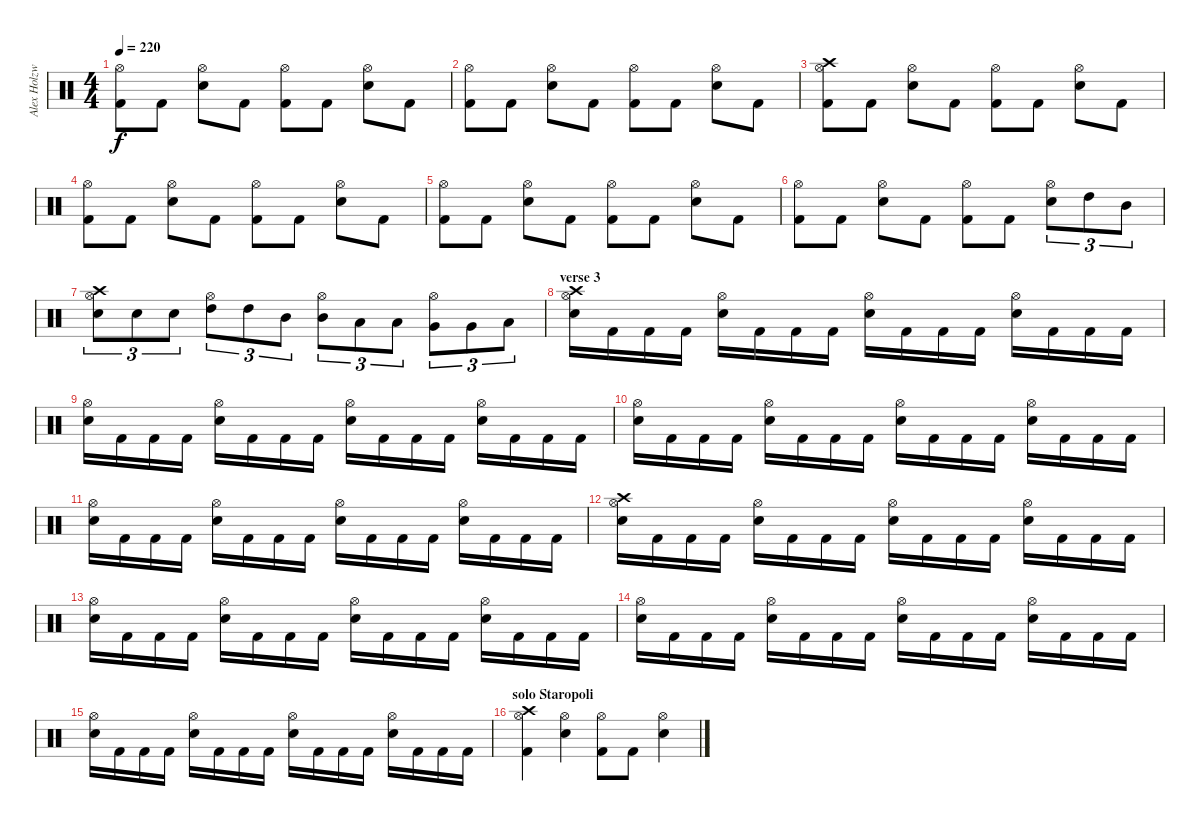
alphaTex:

\track ("Alex Holzwarth" "Alex Holzw") {instrument percussion}
\staff {score}
\articulation defaults
\ts (4 4)
\tempo 220
\clef neutral
\ks c
("Hi-Hat (open)" "Kick (hit) 2").8{dy f} "Kick (hit) 2".8 ("Hi-Hat (open)" "Electric Snare (hit)").8 "Kick (hit) 2".8 ("Hi-Hat (open)" "Kick (hit) 2").8 "Kick (hit) 2".8 ("Hi-Hat (open)" "Electric Snare (hit)").8 "Kick (hit) 2".8 |
("Hi-Hat (open)" "Kick (hit) 2").8 "Kick (hit) 2".8 ("Hi-Hat (open)" "Electric Snare (hit)").8 "Kick (hit) 2".8 ("Hi-Hat (open)" "Kick (hit) 2").8 "Kick (hit) 2".8 ("Hi-Hat (open)" "Electric Snare (hit)").8 "Kick (hit) 2".8 |
("Crash high (hit)" "Hi-Hat (open)" "Kick (hit) 2").8 "Kick (hit) 2".8 ("Hi-Hat (open)" "Electric Snare (hit)").8 "Kick (hit) 2".8 ("Hi-Hat (open)" "Kick (hit) 2").8 "Kick (hit) 2".8 ("Hi-Hat (open)" "Electric Snare (hit)").8 "Kick (hit) 2".8 |
("Hi-Hat (open)" "Kick (hit) 2").8 "Kick (hit) 2".8 ("Hi-Hat (open)" "Electric Snare (hit)").8 "Kick (hit) 2".8 ("Hi-Hat (open)" "Kick (hit) 2").8 "Kick (hit) 2".8 ("Hi-Hat (open)" "Electric Snare (hit)").8 "Kick (hit) 2".8 |
("Hi-Hat (open)" "Kick (hit) 2").8 "Kick (hit) 2".8 ("Hi-Hat (open)" "Electric Snare (hit)").8 "Kick (hit) 2".8 ("Hi-Hat (open)" "Kick (hit) 2").8 "Kick (hit) 2".8 ("Hi-Hat (open)" "Electric Snare (hit)").8 "Kick (hit) 2".8 |
("Hi-Hat (open)" "Kick (hit) 2").8 "Kick (hit) 2".8 ("Hi-Hat (open)" "Electric Snare (hit)").8 "Kick (hit) 2".8 ("Hi-Hat (open)" "Kick (hit) 2").8 "Kick (hit) 2".8 ("Hi-Hat (open)" "Electric Snare (hit)").8{tu (3 2)} "High Tom (hit)".8{tu (3 2)} "Mid Tom (hit)".8{tu (3 2)} |
("Crash high (hit)" "Hi-Hat (open)" "Electric Snare (hit)").8{tu (3 2)} "Electric Snare (hit)".8{tu (3 2)} "Electric Snare (hit)".8{tu (3 2)} ("Hi-Hat (open)" "High Tom (hit)").8{tu (3 2)} "High Tom (hit)".8{tu (3 2)} "Mid Tom (hit)".8{tu (3 2)} ("Hi-Hat (open)" "Mid Tom (hit)").8{tu (3 2)} "Low Tom (hit)".8{tu (3 2)} "Low Tom (hit)".8{tu (3 2)} ("Hi-Hat (open)" "Very Low Tom (hit)").8{tu (3 2)} "Very Low Tom (hit)".8{tu (3 2)} "Low Floor Tom (hit)".8{tu (3 2)} |
\section ("" "verse 3")
("Crash high (hit)" "Hi-Hat (open)" "Electric Snare (hit)").16 "Kick (hit) 2".16 "Kick (hit) 2".16 "Kick (hit) 2".16 ("Hi-Hat (open)" "Electric Snare (hit)").16 "Kick (hit) 2".16 "Kick (hit) 2".16 "Kick (hit) 2".16 ("Hi-Hat (open)" "Electric Snare (hit)").16 "Kick (hit) 2".16 "Kick (hit) 2".16 "Kick (hit) 2".16 ("Hi-Hat (open)" "Electric Snare (hit)").16 "Kick (hit) 2".16 "Kick (hit) 2".16 "Kick (hit) 2".16 |
("Hi-Hat (open)" "Electric Snare (hit)").16 "Kick (hit) 2".16 "Kick (hit) 2".16 "Kick (hit) 2".16 ("Hi-Hat (open)" "Electric Snare (hit)").16 "Kick (hit) 2".16 "Kick (hit) 2".16 "Kick (hit) 2".16 ("Hi-Hat (open)" "Electric Snare (hit)").16 "Kick (hit) 2".16 "Kick (hit) 2".16 "Kick (hit) 2".16 ("Hi-Hat (open)" "Electric Snare (hit)").16 "Kick (hit) 2".16 "Kick (hit) 2".16 "Kick (hit) 2".16 |
("Hi-Hat (open)" "Electric Snare (hit)").16 "Kick (hit) 2".16 "Kick (hit) 2".16 "Kick (hit) 2".16 ("Hi-Hat (open)" "Electric Snare (hit)").16 "Kick (hit) 2".16 "Kick (hit) 2".16 "Kick (hit) 2".16 ("Hi-Hat (open)" "Electric Snare (hit)").16 "Kick (hit) 2".16 "Kick (hit) 2".16 "Kick (hit) 2".16 ("Hi-Hat (open)" "Electric Snare (hit)").16 "Kick (hit) 2".16 "Kick (hit) 2".16 "Kick (hit) 2".16 |
("Hi-Hat (open)" "Electric Snare (hit)").16 "Kick (hit) 2".16 "Kick (hit) 2".16 "Kick (hit) 2".16 ("Hi-Hat (open)" "Electric Snare (hit)").16 "Kick (hit) 2".16 "Kick (hit) 2".16 "Kick (hit) 2".16 ("Hi-Hat (open)" "Electric Snare (hit)").16 "Kick (hit) 2".16 "Kick (hit) 2".16 "Kick (hit) 2".16 ("Hi-Hat (open)" "Electric Snare (hit)").16 "Kick (hit) 2".16 "Kick (hit) 2".16 "Kick (hit) 2".16 |
("Crash high (hit)" "Hi-Hat (open)" "Electric Snare (hit)").16 "Kick (hit) 2".16 "Kick (hit) 2".16 "Kick (hit) 2".16 ("Hi-Hat (open)" "Electric Snare (hit)").16 "Kick (hit) 2".16 "Kick (hit) 2".16 "Kick (hit) 2".16 ("Hi-Hat (open)" "Electric Snare (hit)").16 "Kick (hit) 2".16 "Kick (hit) 2".16 "Kick (hit) 2".16 ("Hi-Hat (open)" "Electric Snare (hit)").16 "Kick (hit) 2".16 "Kick (hit) 2".16 "Kick (hit) 2".16 |
("Hi-Hat (open)" "Electric Snare (hit)").16 "Kick (hit) 2".16 "Kick (hit) 2".16 "Kick (hit) 2".16 ("Hi-Hat (open)" "Electric Snare (hit)").16 "Kick (hit) 2".16 "Kick (hit) 2".16 "Kick (hit) 2".16 ("Hi-Hat (open)" "Electric Snare (hit)").16 "Kick (hit) 2".16 "Kick (hit) 2".16 "Kick (hit) 2".16 ("Hi-Hat (open)" "Electric Snare (hit)").16 "Kick (hit) 2".16 "Kick (hit) 2".16 "Kick (hit) 2".16 |
("Hi-Hat (open)" "Electric Snare (hit)").16 "Kick (hit) 2".16 "Kick (hit) 2".16 "Kick (hit) 2".16 ("Hi-Hat (open)" "Electric Snare (hit)").16 "Kick (hit) 2".16 "Kick (hit) 2".16 "Kick (hit) 2".16 ("Hi-Hat (open)" "Electric Snare (hit)").16 "Kick (hit) 2".16 "Kick (hit) 2".16 "Kick (hit) 2".16 ("Hi-Hat (open)" "Electric Snare (hit)").16 "Kick (hit) 2".16 "Kick (hit) 2".16 "Kick (hit) 2".16 |
("Hi-Hat (open)" "Electric Snare (hit)").16 "Kick (hit) 2".16 "Kick (hit) 2".16 "Kick (hit) 2".16 ("Hi-Hat (open)" "Electric Snare (hit)").16 "Kick (hit) 2".16 "Kick (hit) 2".16 "Kick (hit) 2".16 ("Hi-Hat (open)" "Electric Snare (hit)").16 "Kick (hit) 2".16 "Kick (hit) 2".16 "Kick (hit) 2".16 ("Hi-Hat (open)" "Electric Snare (hit)").16 "Kick (hit) 2".16 "Kick (hit) 2".16 "Kick (hit) 2".16 |
\section ("" "solo Staropoli")
("Crash high (hit)" "Hi-Hat (open)" "Kick (hit) 2").4 ("Hi-Hat (open)" "Electric Snare (hit)").4 ("Hi-Hat (open)" "Kick (hit) 2").8 "Kick (hit) 2".8 ("Hi-Hat (open)" "Electric Snare (hit)").4
